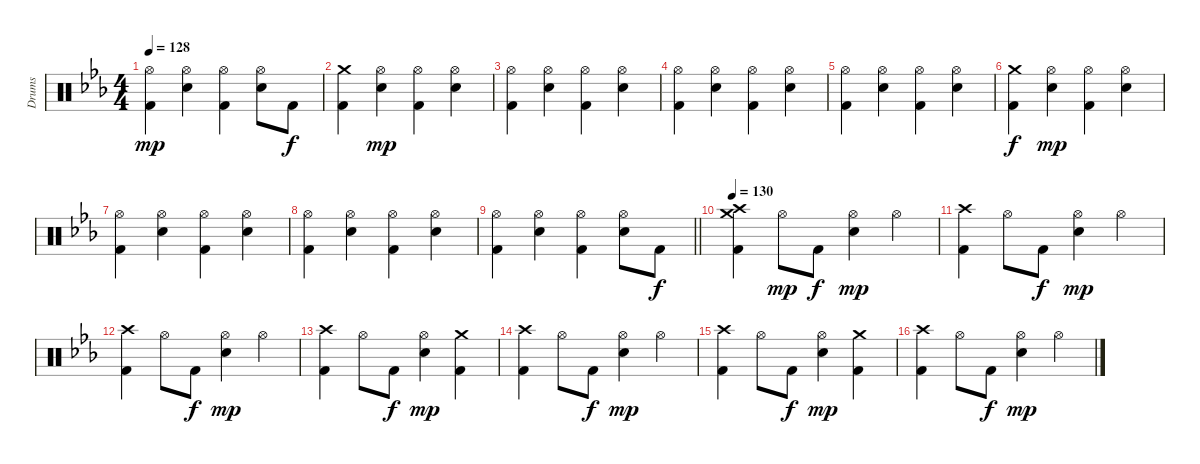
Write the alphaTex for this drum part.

\track ("Drums" "Drums") {instrument percussion}
\staff {score}
\articulation defaults
\ts (4 4)
\tempo 128
\clef neutral
\ks cminor
("Hi-Hat (open)" "Kick (hit) 2").4{dy mp} ("Hi-Hat (open)" "Electric Snare (hit)").4 ("Hi-Hat (open)" "Kick (hit) 2").4 ("Hi-Hat (open)" "Electric Snare (hit)").8 "Kick (hit) 2".8{dy f} |
("Crash medium (hit)" "Kick (hit) 2").4 ("Hi-Hat (open)" "Electric Snare (hit)").4{dy mp} ("Hi-Hat (open)" "Kick (hit) 2").4 ("Hi-Hat (open)" "Electric Snare (hit)").4 |
("Hi-Hat (open)" "Kick (hit) 2").4 ("Hi-Hat (open)" "Electric Snare (hit)").4 ("Hi-Hat (open)" "Kick (hit) 2").4 ("Hi-Hat (open)" "Electric Snare (hit)").4 |
("Hi-Hat (open)" "Kick (hit) 2").4 ("Hi-Hat (open)" "Electric Snare (hit)").4 ("Hi-Hat (open)" "Kick (hit) 2").4 ("Hi-Hat (open)" "Electric Snare (hit)").4 |
("Hi-Hat (open)" "Kick (hit) 2").4 ("Hi-Hat (open)" "Electric Snare (hit)").4 ("Hi-Hat (open)" "Kick (hit) 2").4 ("Hi-Hat (open)" "Electric Snare (hit)").4 |
("Crash medium (hit)" "Kick (hit) 2").4{dy f} ("Hi-Hat (open)" "Electric Snare (hit)").4{dy mp} ("Hi-Hat (open)" "Kick (hit) 2").4 ("Hi-Hat (open)" "Electric Snare (hit)").4 |
("Hi-Hat (open)" "Kick (hit) 2").4 ("Hi-Hat (open)" "Electric Snare (hit)").4 ("Hi-Hat (open)" "Kick (hit) 2").4 ("Hi-Hat (open)" "Electric Snare (hit)").4 |
("Hi-Hat (open)" "Kick (hit) 2").4 ("Hi-Hat (open)" "Electric Snare (hit)").4 ("Hi-Hat (open)" "Kick (hit) 2").4 ("Hi-Hat (open)" "Electric Snare (hit)").4 |
\barLineRight lightlight
("Hi-Hat (open)" "Kick (hit) 2").4 ("Hi-Hat (open)" "Electric Snare (hit)").4 ("Hi-Hat (open)" "Kick (hit) 2").4 ("Hi-Hat (open)" "Electric Snare (hit)").8 "Kick (hit) 2".8{dy f} |
\tempo 130
("Crash medium (hit)" "Crash high (hit)" "Kick (hit) 2").4 "Hi-Hat (open)".8{dy mp} "Kick (hit) 2".8{dy f} ("Hi-Hat (open)" "Electric Snare (hit)").4{dy mp} "Hi-Hat (open)".4 |
("Crash high (hit)" "Kick (hit) 2").4 "Hi-Hat (open)".8 "Kick (hit) 2".8{dy f} ("Hi-Hat (open)" "Electric Snare (hit)").4{dy mp} "Hi-Hat (open)".4 |
("Crash high (hit)" "Kick (hit) 2").4 "Hi-Hat (open)".8 "Kick (hit) 2".8{dy f} ("Hi-Hat (open)" "Electric Snare (hit)").4{dy mp} "Hi-Hat (open)".4 |
("Crash high (hit)" "Kick (hit) 2").4 "Hi-Hat (open)".8 "Kick (hit) 2".8{dy f} ("Hi-Hat (open)" "Electric Snare (hit)").4{dy mp} ("Crash medium (hit)" "Kick (hit) 2").4 |
("Crash high (hit)" "Kick (hit) 2").4 "Hi-Hat (open)".8 "Kick (hit) 2".8{dy f} ("Hi-Hat (open)" "Electric Snare (hit)").4{dy mp} "Hi-Hat (open)".4 |
("Crash high (hit)" "Kick (hit) 2").4 "Hi-Hat (open)".8 "Kick (hit) 2".8{dy f} ("Hi-Hat (open)" "Electric Snare (hit)").4{dy mp} ("Crash medium (hit)" "Kick (hit) 2").4 |
("Crash high (hit)" "Kick (hit) 2").4 "Hi-Hat (open)".8 "Kick (hit) 2".8{dy f} ("Hi-Hat (open)" "Electric Snare (hit)").4{dy mp} "Hi-Hat (open)".4
